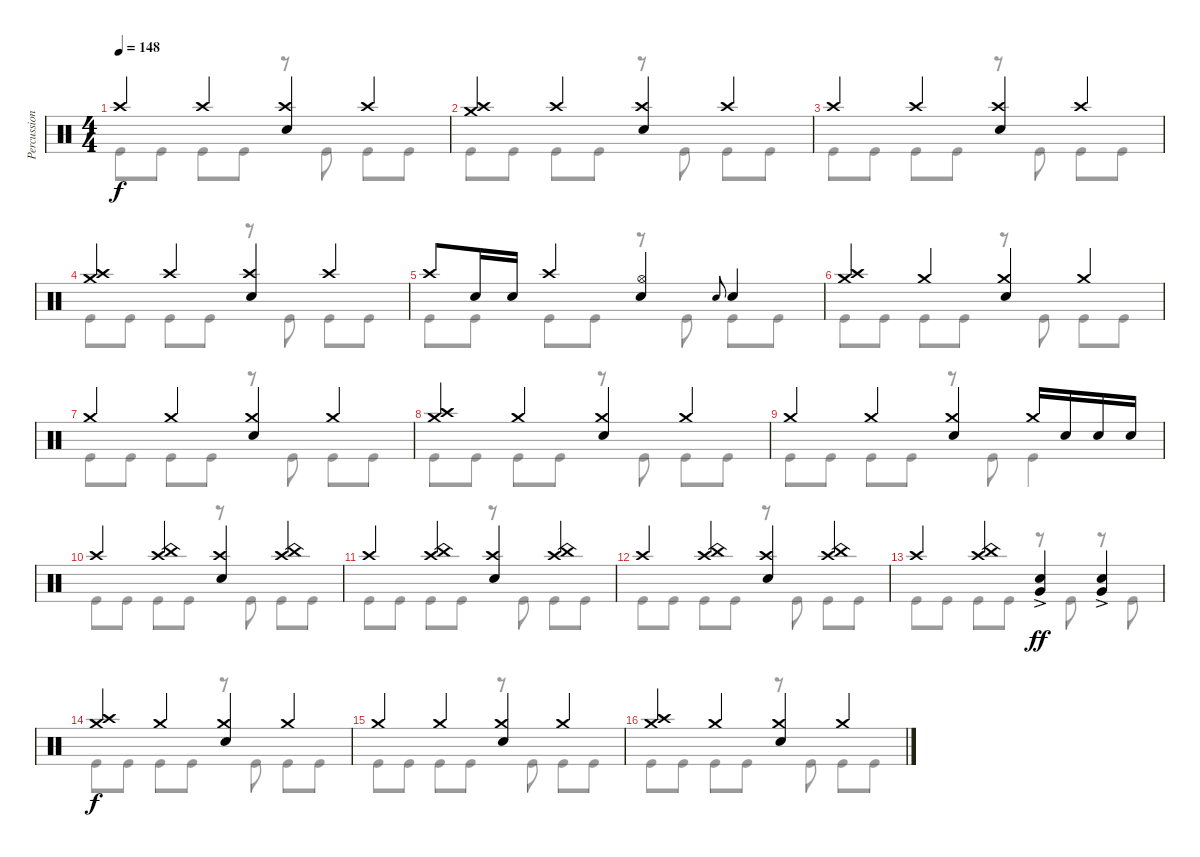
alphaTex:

\track ("Percussion" "Percussion") {instrument percussion}
\staff {score}
\articulation defaults
\voice
\ts (4 4)
\tempo 148
\clef neutral
\ks c "Crash high (hit)".4{dy f} "Crash high (hit)".4
("Crash high (hit)" "Electric Snare (hit)").4 "Crash high (hit)".4 |
("Crash medium (hit)" "Crash high (hit)").4 "Crash high (hit)".4 ("Crash high (hit)" "Electric Snare (hit)").4 "Crash high (hit)".4 |
"Crash high (hit)".4 "Crash high (hit)".4 ("Crash high (hit)" "Electric Snare (hit)").4 "Crash high (hit)".4 |
("Crash medium (hit)" "Crash high (hit)").4 "Crash high (hit)".4 ("Crash high (hit)" "Electric Snare (hit)").4 "Crash high (hit)".4 |
"Crash high (hit)".8 "Electric Snare (hit)".16 "Electric Snare (hit)".16 "Crash high (hit)".4 ("Hi-Hat (open)" "Electric Snare (hit)").4 "Electric Snare (hit)".8{gr onbeat} "Electric Snare (hit)".4 |
("Crash medium (hit)" "Crash high (hit)").4 "Crash medium (hit)".4 ("Crash medium (hit)" "Electric Snare (hit)").4 "Crash medium (hit)".4 |
"Crash medium (hit)".4 "Crash medium (hit)".4 ("Crash medium (hit)" "Electric Snare (hit)").4 "Crash medium (hit)".4 |
("Crash medium (hit)" "Crash high (hit)").4 "Crash medium (hit)".4 ("Crash medium (hit)" "Electric Snare (hit)").4 "Crash medium (hit)".4 |
"Crash medium (hit)".4 "Crash medium (hit)".4 ("Crash medium (hit)" "Electric Snare (hit)").4 "Crash medium (hit)".16 "Electric Snare (hit)".16 "Electric Snare (hit)".16 "Electric Snare (hit)".16 |
"Crash high (hit)".4 ("China (hit)" "Crash high (hit)").4 ("Crash high (hit)" "Electric Snare (hit)").4 ("China (hit)" "Crash high (hit)").4 |
"Crash high (hit)".4 ("China (hit)" "Crash high (hit)").4 ("Crash high (hit)" "Electric Snare (hit)").4 ("China (hit)" "Crash high (hit)").4 |
"Crash high (hit)".4 ("China (hit)" "Crash high (hit)").4 ("Crash high (hit)" "Electric Snare (hit)").4 ("China (hit)" "Crash high (hit)").4 |
"Crash high (hit)".4 ("China (hit)" "Crash high (hit)").4 ("Very Low Tom (hit)"{ac} "Electric Snare (hit)"{ac}).4{dy ff} ("Very Low Tom (hit)"{ac} "Electric Snare (hit)"{ac}).4 |
("Crash medium (hit)" "Crash high (hit)").4{dy f} "Crash medium (hit)".4 ("Crash medium (hit)" "Electric Snare (hit)").4 "Crash medium (hit)".4 |
"Crash medium (hit)".4 "Crash medium (hit)".4 ("Crash medium (hit)" "Electric Snare (hit)").4 "Crash medium (hit)".4 |
("Crash medium (hit)" "Crash high (hit)").4 "Crash medium (hit)".4 ("Crash medium (hit)" "Electric Snare (hit)").4 "Crash medium (hit)".4
\voice
\clef neutral
\ottava regular
\simile none
\ks c "Kick (hit)".8{dy f} "Kick (hit)".8 "Kick (hit)".8 "Kick (hit)".8
r.8 "Kick (hit)".8 "Kick (hit)".8 "Kick (hit)".8 |
"Kick (hit)".8 "Kick (hit)".8 "Kick (hit)".8 "Kick (hit)".8 r.8 "Kick (hit)".8 "Kick (hit)".8 "Kick (hit)".8 |
"Kick (hit)".8 "Kick (hit)".8 "Kick (hit)".8 "Kick (hit)".8 r.8 "Kick (hit)".8 "Kick (hit)".8 "Kick (hit)".8 |
"Kick (hit)".8 "Kick (hit)".8 "Kick (hit)".8 "Kick (hit)".8 r.8 "Kick (hit)".8 "Kick (hit)".8 "Kick (hit)".8 |
"Kick (hit)".8 "Kick (hit)".8 "Kick (hit)".8 "Kick (hit)".8 r.8 "Kick (hit)".8 "Kick (hit)".8 "Kick (hit)".8 |
"Kick (hit)".8 "Kick (hit)".8 "Kick (hit)".8 "Kick (hit)".8 r.8 "Kick (hit)".8 "Kick (hit)".8 "Kick (hit)".8 |
"Kick (hit)".8 "Kick (hit)".8 "Kick (hit)".8 "Kick (hit)".8 r.8 "Kick (hit)".8 "Kick (hit)".8 "Kick (hit)".8 |
"Kick (hit)".8 "Kick (hit)".8 "Kick (hit)".8 "Kick (hit)".8 r.8 "Kick (hit)".8 "Kick (hit)".8 "Kick (hit)".8 |
"Kick (hit)".8 "Kick (hit)".8 "Kick (hit)".8 "Kick (hit)".8 r.8 "Kick (hit)".8 "Kick (hit)".4 |
"Kick (hit)".8 "Kick (hit)".8 "Kick (hit)".8 "Kick (hit)".8 r.8 "Kick (hit)".8 "Kick (hit)".8 "Kick (hit)".8 |
"Kick (hit)".8 "Kick (hit)".8 "Kick (hit)".8 "Kick (hit)".8 r.8 "Kick (hit)".8 "Kick (hit)".8 "Kick (hit)".8 |
"Kick (hit)".8 "Kick (hit)".8 "Kick (hit)".8 "Kick (hit)".8 r.8 "Kick (hit)".8 "Kick (hit)".8 "Kick (hit)".8 |
"Kick (hit)".8 "Kick (hit)".8 "Kick (hit)".8 "Kick (hit)".8 r.8 "Kick (hit)".8 r.8 "Kick (hit)".8 |
"Kick (hit)".8 "Kick (hit)".8 "Kick (hit)".8 "Kick (hit)".8 r.8 "Kick (hit)".8 "Kick (hit)".8 "Kick (hit)".8 |
"Kick (hit)".8 "Kick (hit)".8 "Kick (hit)".8 "Kick (hit)".8 r.8 "Kick (hit)".8 "Kick (hit)".8 "Kick (hit)".8 |
"Kick (hit)".8 "Kick (hit)".8 "Kick (hit)".8 "Kick (hit)".8 r.8 "Kick (hit)".8 "Kick (hit)".8 "Kick (hit)".8
